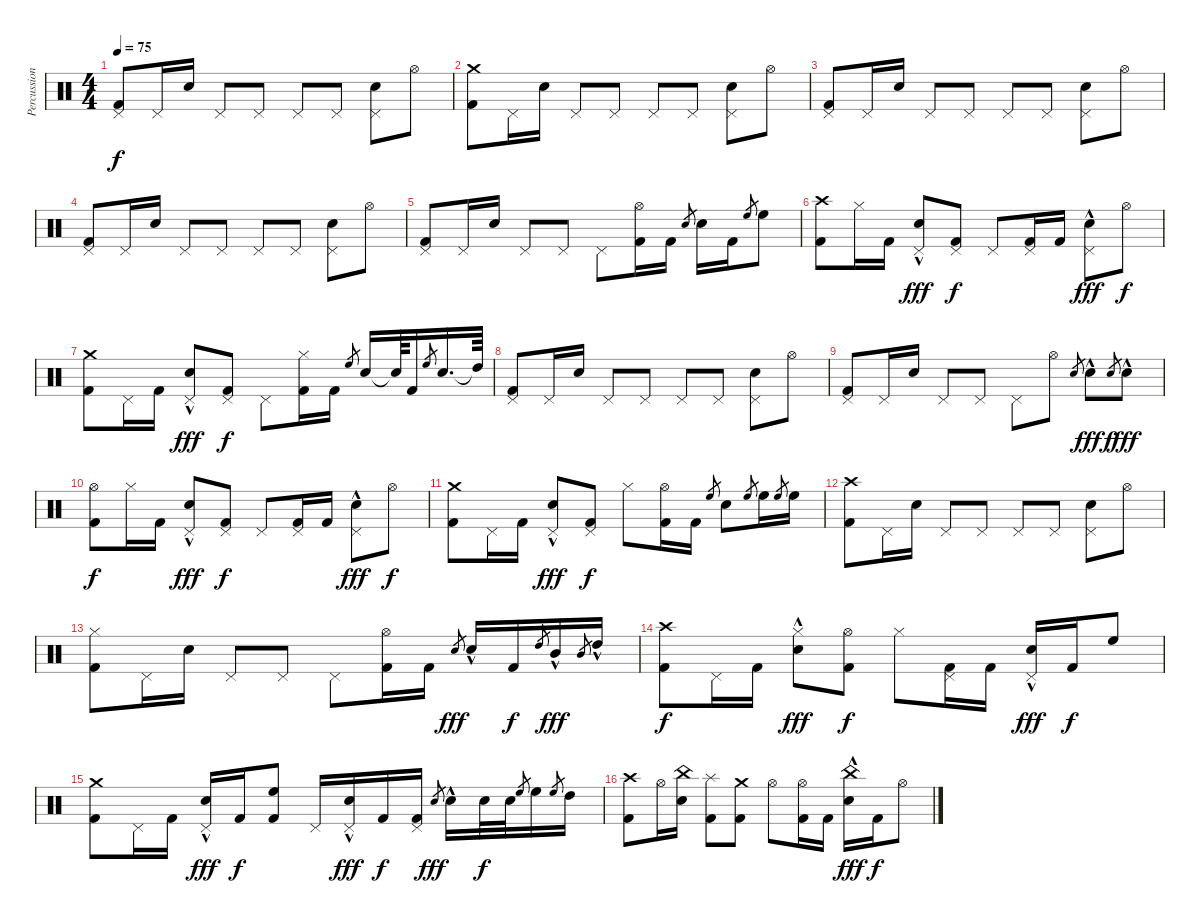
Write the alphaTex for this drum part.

\track ("Percussion" "Percussion") {instrument percussion}
\staff {score}
\articulation defaults
\ts (4 4)
\tempo 75
\clef neutral
\ks c
("Pedal Hi-Hat (hit)" "Kick (hit) 2").8{dy f} "Pedal Hi-Hat (hit)".16 "Electric Snare (hit)".16 "Pedal Hi-Hat (hit)".8 "Pedal Hi-Hat (hit)".8 "Pedal Hi-Hat (hit)".8 "Pedal Hi-Hat (hit)".8 ("Pedal Hi-Hat (hit)" "Electric Snare (hit)").8 "Hi-Hat (open)".8 |
("Crash medium (hit)" "Kick (hit) 2").8 "Pedal Hi-Hat (hit)".16 "Electric Snare (hit)".16 "Pedal Hi-Hat (hit)".8 "Pedal Hi-Hat (hit)".8 "Pedal Hi-Hat (hit)".8 "Pedal Hi-Hat (hit)".8 ("Pedal Hi-Hat (hit)" "Electric Snare (hit)").8 "Hi-Hat (open)".8 |
("Pedal Hi-Hat (hit)" "Kick (hit) 2").8 "Pedal Hi-Hat (hit)".16 "Electric Snare (hit)".16 "Pedal Hi-Hat (hit)".8 "Pedal Hi-Hat (hit)".8 "Pedal Hi-Hat (hit)".8 "Pedal Hi-Hat (hit)".8 ("Pedal Hi-Hat (hit)" "Electric Snare (hit)").8 "Hi-Hat (open)".8 |
("Pedal Hi-Hat (hit)" "Kick (hit) 2").8 "Pedal Hi-Hat (hit)".16 "Electric Snare (hit)".16 "Pedal Hi-Hat (hit)".8 "Pedal Hi-Hat (hit)".8 "Pedal Hi-Hat (hit)".8 "Pedal Hi-Hat (hit)".8 ("Pedal Hi-Hat (hit)" "Electric Snare (hit)").8 "Hi-Hat (open)".8 |
("Pedal Hi-Hat (hit)" "Kick (hit) 2").8 "Pedal Hi-Hat (hit)".16 "Electric Snare (hit)".16 "Pedal Hi-Hat (hit)".8 "Pedal Hi-Hat (hit)".8 "Pedal Hi-Hat (hit)".8 ("Hi-Hat (open)" "Kick (hit) 2").16 "Kick (hit) 2".16 "Electric Snare (hit)".8{gr} "Electric Snare (hit)".16 "Kick (hit) 2".16 "High Floor Tom (hit)".8{gr} "High Floor Tom (hit)".8 |
("Crash high (hit)" "Kick (hit) 2").8 "Hi-Hat (closed)".16 "Kick (hit) 2".16 ("Pedal Hi-Hat (hit)" "Electric Snare (hit)"{hac}).8{dy fff} ("Pedal Hi-Hat (hit)" "Kick (hit) 2").8{dy f} "Pedal Hi-Hat (hit)".8 ("Pedal Hi-Hat (hit)" "Kick (hit) 2").16 "Kick (hit) 2".16 ("Pedal Hi-Hat (hit)" "Electric Snare (hit)"{hac}).8{dy fff} "Hi-Hat (open)".8{dy f} |
("Crash medium (hit)" "Kick (hit) 2").8 "Pedal Hi-Hat (hit)".16 "Kick (hit) 2".16 ("Pedal Hi-Hat (hit)" "Electric Snare (hit)"{hac}).8{dy fff} ("Pedal Hi-Hat (hit)" "Kick (hit) 2").8{dy f} "Pedal Hi-Hat (hit)".8 ("Hi-Hat (closed)" "Kick (hit) 2").16 "Kick (hit) 2".16 "High Floor Tom (hit)".8{gr} "Electric Snare (hit)".16 "Electric Snare (hit)"{t}.64 "Kick (hit) 2".16 "High Floor Tom (hit)".8{gr} "Electric Snare (hit)".16{d} "High Tom (hit)"{t}.64 |
("Pedal Hi-Hat (hit)" "Kick (hit) 2").8 "Pedal Hi-Hat (hit)".16 "Electric Snare (hit)".16 "Pedal Hi-Hat (hit)".8 "Pedal Hi-Hat (hit)".8 "Pedal Hi-Hat (hit)".8 "Pedal Hi-Hat (hit)".8 ("Pedal Hi-Hat (hit)" "Electric Snare (hit)").8 "Hi-Hat (open)".8 |
("Pedal Hi-Hat (hit)" "Kick (hit) 2").8 "Pedal Hi-Hat (hit)".16 "Electric Snare (hit)".16 "Pedal Hi-Hat (hit)".8 "Pedal Hi-Hat (hit)".8 "Pedal Hi-Hat (hit)".8 "Hi-Hat (open)".8 "Electric Snare (hit)".8{gr} "Electric Snare (hit)"{hac}.8{dy fff} "Electric Snare (hit)".8{gr dy f} "Electric Snare (hit)"{hac}.8{dy fff} |
("Hi-Hat (open)" "Kick (hit) 2").8{dy f} "Hi-Hat (closed)".16 "Kick (hit) 2".16 ("Pedal Hi-Hat (hit)" "Electric Snare (hit)"{hac}).8{dy fff} ("Pedal Hi-Hat (hit)" "Kick (hit) 2").8{dy f} "Pedal Hi-Hat (hit)".8 ("Pedal Hi-Hat (hit)" "Kick (hit) 2").16 "Kick (hit) 2".16 ("Pedal Hi-Hat (hit)" "Electric Snare (hit)"{hac}).8{dy fff} "Hi-Hat (open)".8{dy f} |
("Crash medium (hit)" "Kick (hit) 2").8 "Pedal Hi-Hat (hit)".16 "Kick (hit) 2".16 ("Pedal Hi-Hat (hit)" "Electric Snare (hit)"{hac}).8{dy fff} ("Pedal Hi-Hat (hit)" "Kick (hit) 2").8{dy f} "Hi-Hat (closed)".8 ("Hi-Hat (open)" "Kick (hit) 2").16 "Kick (hit) 2".16 "High Floor Tom (hit)".8{gr} "Electric Snare (hit)".8 "High Floor Tom (hit)".8{gr} "High Floor Tom (hit)".16 "High Floor Tom (hit)".8{gr} "High Floor Tom (hit)".16 |
("Crash high (hit)" "Kick (hit) 2").8 "Pedal Hi-Hat (hit)".16 "Electric Snare (hit)".16 "Pedal Hi-Hat (hit)".8 "Pedal Hi-Hat (hit)".8 "Pedal Hi-Hat (hit)".8 "Pedal Hi-Hat (hit)".8 ("Pedal Hi-Hat (hit)" "Electric Snare (hit)").8 "Hi-Hat (open)".8 |
("Hi-Hat (closed)" "Kick (hit) 2").8 "Pedal Hi-Hat (hit)".16 "Electric Snare (hit)".16 "Pedal Hi-Hat (hit)".8 "Pedal Hi-Hat (hit)".8 "Pedal Hi-Hat (hit)".8 ("Hi-Hat (open)" "Kick (hit) 2").16 "Kick (hit) 2".16 "Electric Snare (hit)".8{gr dy fff} "Electric Snare (hit)"{hac}.16 "Kick (hit) 2".16{dy f} "High Tom (hit)".8{gr} "Mid Tom (hit)"{hac}.16{dy fff} "Mid Tom (hit)".8{gr} "High Tom (hit)"{hac}.16 |
("Crash high (hit)" "Kick (hit) 2").8{dy f} "Pedal Hi-Hat (hit)".16 "Kick (hit) 2".16 ("Hi-Hat (closed)" "Electric Snare (hit)"{hac}).8{dy fff} ("Hi-Hat (open)" "Kick (hit) 2").8{dy f} "Hi-Hat (closed)".8 ("Pedal Hi-Hat (hit)" "Kick (hit) 2").16 "Kick (hit) 2".16 ("Pedal Hi-Hat (hit)" "Electric Snare (hit)"{hac}).16{dy fff} "Kick (hit) 2".16{dy f} "High Floor Tom (hit)".8 |
("Crash medium (hit)" "Kick (hit) 2").8 "Pedal Hi-Hat (hit)".16 "Kick (hit) 2".16 ("Pedal Hi-Hat (hit)" "Electric Snare (hit)"{hac}).16{dy fff} "Kick (hit) 2".16{dy f} ("High Floor Tom (hit)" "Kick (hit) 2").8 "Pedal Hi-Hat (hit)".16 ("Pedal Hi-Hat (hit)" "Electric Snare (hit)"{hac}).16{dy fff} "Kick (hit) 2".16{dy f} ("Pedal Hi-Hat (hit)" "Kick (hit) 2").16 "Electric Snare (hit)".8{gr dy fff} "Electric Snare (hit)"{hac}.16 "Electric Snare (hit)".32{dy f} "Electric Snare (hit)".32 "High Floor Tom (hit)".8{gr} "High Floor Tom (hit)".16 "High Floor Tom (hit)".8{gr} "High Tom (hit)".16 |
("Crash high (hit)" "Kick (hit) 2").8 "Hi-Hat (open)".16 ("China (hit)" "Electric Snare (hit)").16 ("Splash (hit)" "Kick (hit) 2").8 ("Crash medium (hit)" "Kick (hit) 2").8 "Hi-Hat (open)".8 ("Hi-Hat (open)" "Kick (hit) 2").16 "Kick (hit) 2".16 ("China (hit)" "Electric Snare (hit)"{hac}).16{dy fff} "Kick (hit) 2".16{dy f} "Hi-Hat (open)".8
